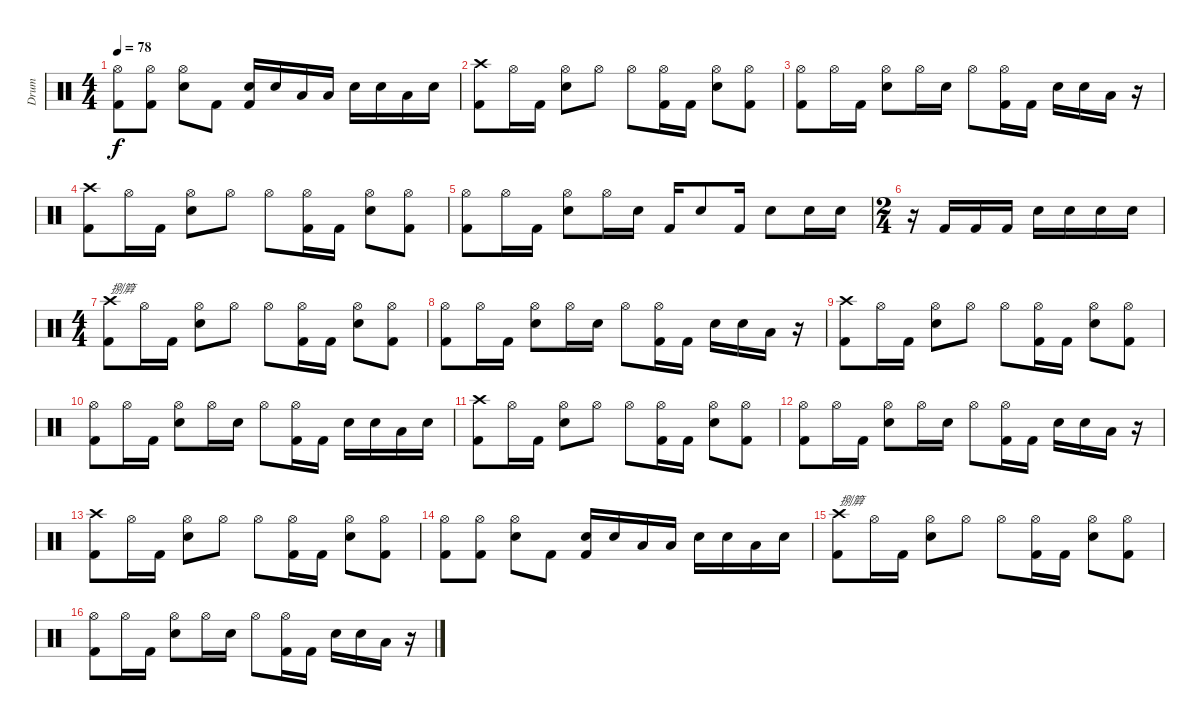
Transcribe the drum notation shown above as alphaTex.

\track ("Drum" "Drum") {instrument percussion}
\staff {score}
\articulation defaults
\ts (4 4)
\tempo 78
\clef neutral
\ks c
("Hi-Hat (open)" "Kick (hit) 2").8{dy f} ("Hi-Hat (open)" "Kick (hit) 2").8 ("Hi-Hat (open)" "Snare (hit) 2").8 "Kick (hit) 2".8 ("Snare (hit) 2" "Kick (hit) 2").16 "Snare (hit) 2".16 "Low Tom (hit)".16 "Low Tom (hit)".16 "Snare (hit) 2".16 "Snare (hit) 2".16 "Low Tom (hit)".16 "Snare (hit) 2".16 |
("Crash high (hit)" "Kick (hit) 2").8 "Hi-Hat (open)".16 "Kick (hit) 2".16 ("Hi-Hat (open)" "Snare (hit) 2").8 "Hi-Hat (open)".8 "Hi-Hat (open)".8 ("Hi-Hat (open)" "Kick (hit) 2").16 "Kick (hit) 2".16 ("Hi-Hat (open)" "Snare (hit) 2").8 ("Hi-Hat (open)" "Kick (hit) 2").8 |
("Hi-Hat (open)" "Kick (hit) 2").8 "Hi-Hat (open)".16 "Kick (hit) 2".16 ("Hi-Hat (open)" "Snare (hit) 2").8 "Hi-Hat (open)".16 "Snare (hit) 2".16 "Hi-Hat (open)".8 ("Hi-Hat (open)" "Kick (hit) 2").16 "Kick (hit) 2".16 "Snare (hit) 2".16 "Snare (hit) 2".16 "Low Tom (hit)".16 r.16 |
("Crash high (hit)" "Kick (hit) 2").8 "Hi-Hat (open)".16 "Kick (hit) 2".16 ("Hi-Hat (open)" "Snare (hit) 2").8 "Hi-Hat (open)".8 "Hi-Hat (open)".8 ("Hi-Hat (open)" "Kick (hit) 2").16 "Kick (hit) 2".16 ("Hi-Hat (open)" "Snare (hit) 2").8 ("Hi-Hat (open)" "Kick (hit) 2").8 |
("Hi-Hat (open)" "Kick (hit) 2").8 "Hi-Hat (open)".16 "Kick (hit) 2".16 ("Hi-Hat (open)" "Snare (hit) 2").8 "Hi-Hat (open)".16 "Snare (hit) 2".16 "Kick (hit) 2".16 "Snare (hit) 2".8 "Kick (hit) 2".16 "Snare (hit) 2".8 "Snare (hit) 2".16 "Snare (hit) 2".16 |
\ts (2 4)
r.16 "Kick (hit) 2".16 "Kick (hit) 2".16 "Kick (hit) 2".16 "Snare (hit) 2".16 "Snare (hit) 2".16 "Snare (hit) 2".16 "Snare (hit) 2".16 |
\ts (4 4)
("Crash high (hit)" "Kick (hit) 2").8{txt "捌簈"} "Hi-Hat (open)".16 "Kick (hit) 2".16 ("Hi-Hat (open)" "Snare (hit) 2").8 "Hi-Hat (open)".8 "Hi-Hat (open)".8 ("Hi-Hat (open)" "Kick (hit) 2").16 "Kick (hit) 2".16 ("Hi-Hat (open)" "Snare (hit) 2").8 ("Hi-Hat (open)" "Kick (hit) 2").8 |
("Hi-Hat (open)" "Kick (hit) 2").8 "Hi-Hat (open)".16 "Kick (hit) 2".16 ("Hi-Hat (open)" "Snare (hit) 2").8 "Hi-Hat (open)".16 "Snare (hit) 2".16 "Hi-Hat (open)".8 ("Hi-Hat (open)" "Kick (hit) 2").16 "Kick (hit) 2".16 "Snare (hit) 2".16 "Snare (hit) 2".16 "Low Tom (hit)".16 r.16 |
("Crash high (hit)" "Kick (hit) 2").8 "Hi-Hat (open)".16 "Kick (hit) 2".16 ("Hi-Hat (open)" "Snare (hit) 2").8 "Hi-Hat (open)".8 "Hi-Hat (open)".8 ("Hi-Hat (open)" "Kick (hit) 2").16 "Kick (hit) 2".16 ("Hi-Hat (open)" "Snare (hit) 2").8 ("Hi-Hat (open)" "Kick (hit) 2").8 |
("Hi-Hat (open)" "Kick (hit) 2").8 "Hi-Hat (open)".16 "Kick (hit) 2".16 ("Hi-Hat (open)" "Snare (hit) 2").8 "Hi-Hat (open)".16 "Snare (hit) 2".16 "Hi-Hat (open)".8 ("Hi-Hat (open)" "Kick (hit) 2").16 "Kick (hit) 2".16 "Snare (hit) 2".16 "Snare (hit) 2".16 "Low Tom (hit)".16 "Snare (hit) 2".16 |
("Crash high (hit)" "Kick (hit) 2").8 "Hi-Hat (open)".16 "Kick (hit) 2".16 ("Hi-Hat (open)" "Snare (hit) 2").8 "Hi-Hat (open)".8 "Hi-Hat (open)".8 ("Hi-Hat (open)" "Kick (hit) 2").16 "Kick (hit) 2".16 ("Hi-Hat (open)" "Snare (hit) 2").8 ("Hi-Hat (open)" "Kick (hit) 2").8 |
("Hi-Hat (open)" "Kick (hit) 2").8 "Hi-Hat (open)".16 "Kick (hit) 2".16 ("Hi-Hat (open)" "Snare (hit) 2").8 "Hi-Hat (open)".16 "Snare (hit) 2".16 "Hi-Hat (open)".8 ("Hi-Hat (open)" "Kick (hit) 2").16 "Kick (hit) 2".16 "Snare (hit) 2".16 "Snare (hit) 2".16 "Low Tom (hit)".16 r.16 |
("Crash high (hit)" "Kick (hit) 2").8 "Hi-Hat (open)".16 "Kick (hit) 2".16 ("Hi-Hat (open)" "Snare (hit) 2").8 "Hi-Hat (open)".8 "Hi-Hat (open)".8 ("Hi-Hat (open)" "Kick (hit) 2").16 "Kick (hit) 2".16 ("Hi-Hat (open)" "Snare (hit) 2").8 ("Hi-Hat (open)" "Kick (hit) 2").8 |
("Hi-Hat (open)" "Kick (hit) 2").8 ("Hi-Hat (open)" "Kick (hit) 2").8 ("Hi-Hat (open)" "Snare (hit) 2").8 "Kick (hit) 2".8 ("Snare (hit) 2" "Kick (hit) 2").16 "Snare (hit) 2".16 "Low Tom (hit)".16 "Low Tom (hit)".16 "Snare (hit) 2".16 "Snare (hit) 2".16 "Low Tom (hit)".16 "Snare (hit) 2".16 |
("Crash high (hit)" "Kick (hit) 2").8{txt "捌簈"} "Hi-Hat (open)".16 "Kick (hit) 2".16 ("Hi-Hat (open)" "Snare (hit) 2").8 "Hi-Hat (open)".8 "Hi-Hat (open)".8 ("Hi-Hat (open)" "Kick (hit) 2").16 "Kick (hit) 2".16 ("Hi-Hat (open)" "Snare (hit) 2").8 ("Hi-Hat (open)" "Kick (hit) 2").8 |
("Hi-Hat (open)" "Kick (hit) 2").8 "Hi-Hat (open)".16 "Kick (hit) 2".16 ("Hi-Hat (open)" "Snare (hit) 2").8 "Hi-Hat (open)".16 "Snare (hit) 2".16 "Hi-Hat (open)".8 ("Hi-Hat (open)" "Kick (hit) 2").16 "Kick (hit) 2".16 "Snare (hit) 2".16 "Snare (hit) 2".16 "Low Tom (hit)".16 r.16
